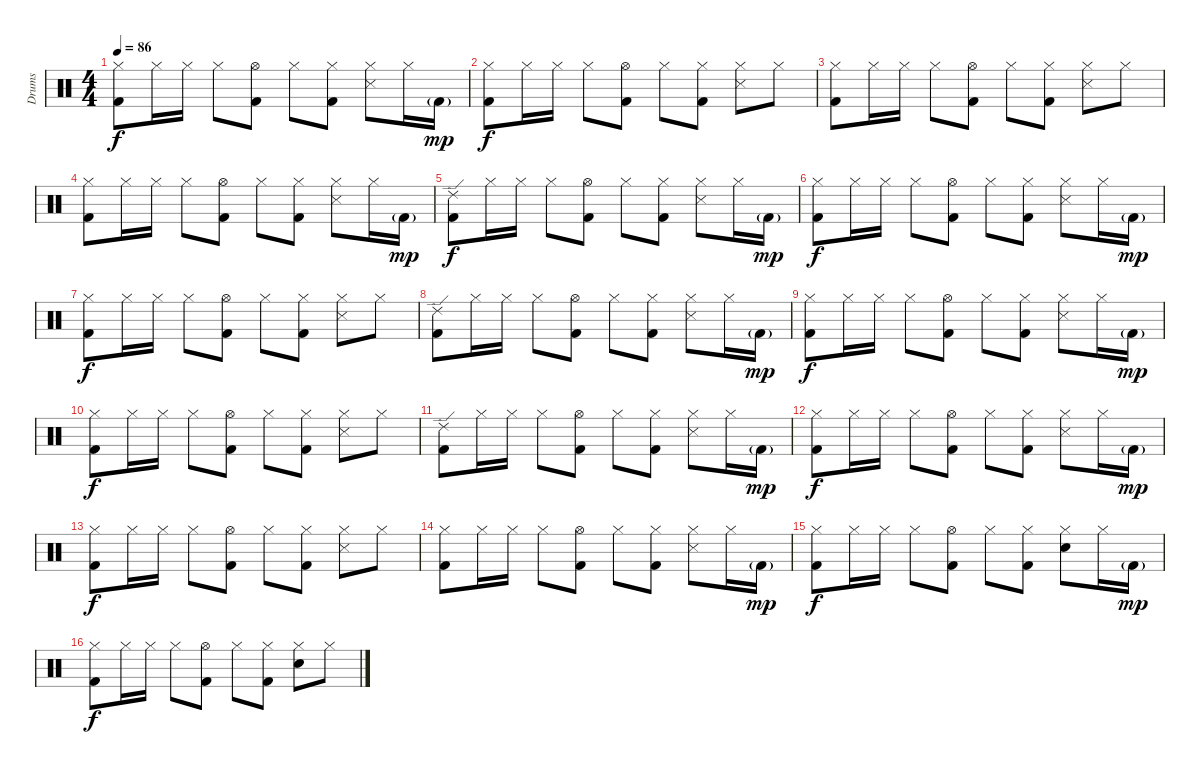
\track ("Drums" "Drums") {instrument percussion}
\staff {score}
\articulation defaults
\ts (4 4)
\tempo 86
\clef neutral
\ks c
("Hi-Hat (closed)" "Kick (hit) 2").8{dy f} "Hi-Hat (closed)".16 "Hi-Hat (closed)".16 "Hi-Hat (closed)".8 ("Hi-Hat (open)" "Kick (hit) 2").8 "Hi-Hat (closed)".8 ("Hi-Hat (closed)" "Kick (hit) 2").8 ("Hi-Hat (closed)" "Snare (side stick) 3").8 "Hi-Hat (closed)".16 "Kick (hit) 2"{g}.16{dy mp} |
("Hi-Hat (closed)" "Kick (hit) 2").8{dy f} "Hi-Hat (closed)".16 "Hi-Hat (closed)".16 "Hi-Hat (closed)".8 ("Hi-Hat (open)" "Kick (hit) 2").8 "Hi-Hat (closed)".8 ("Hi-Hat (closed)" "Kick (hit) 2").8 ("Hi-Hat (closed)" "Snare (side stick) 3").8 "Hi-Hat (closed)".8 |
("Hi-Hat (closed)" "Kick (hit) 2").8 "Hi-Hat (closed)".16 "Hi-Hat (closed)".16 "Hi-Hat (closed)".8 ("Hi-Hat (open)" "Kick (hit) 2").8 "Hi-Hat (closed)".8 ("Hi-Hat (closed)" "Kick (hit) 2").8 ("Hi-Hat (closed)" "Snare (side stick) 3").8 "Hi-Hat (closed)".8 |
("Hi-Hat (closed)" "Kick (hit) 2").8 "Hi-Hat (closed)".16 "Hi-Hat (closed)".16 "Hi-Hat (closed)".8 ("Hi-Hat (open)" "Kick (hit) 2").8 "Hi-Hat (closed)".8 ("Hi-Hat (closed)" "Kick (hit) 2").8 ("Hi-Hat (closed)" "Snare (side stick) 3").8 "Hi-Hat (closed)".16 "Kick (hit) 2"{g}.16{dy mp} |
("Ride (edge) 2" "Kick (hit) 2").8{dy f} "Hi-Hat (closed)".16 "Hi-Hat (closed)".16 "Hi-Hat (closed)".8 ("Hi-Hat (open)" "Kick (hit) 2").8 "Hi-Hat (closed)".8 ("Hi-Hat (closed)" "Kick (hit) 2").8 ("Hi-Hat (closed)" "Snare (side stick) 3").8 "Hi-Hat (closed)".16 "Kick (hit) 2"{g}.16{dy mp} |
("Hi-Hat (closed)" "Kick (hit) 2").8{dy f} "Hi-Hat (closed)".16 "Hi-Hat (closed)".16 "Hi-Hat (closed)".8 ("Hi-Hat (open)" "Kick (hit) 2").8 "Hi-Hat (closed)".8 ("Hi-Hat (closed)" "Kick (hit) 2").8 ("Hi-Hat (closed)" "Snare (side stick) 3").8 "Hi-Hat (closed)".16 "Kick (hit) 2"{g}.16{dy mp} |
("Hi-Hat (closed)" "Kick (hit) 2").8{dy f} "Hi-Hat (closed)".16 "Hi-Hat (closed)".16 "Hi-Hat (closed)".8 ("Hi-Hat (open)" "Kick (hit) 2").8 "Hi-Hat (closed)".8 ("Hi-Hat (closed)" "Kick (hit) 2").8 ("Hi-Hat (closed)" "Snare (side stick) 3").8 "Hi-Hat (closed)".8 |
("Ride (edge) 2" "Kick (hit) 2").8 "Hi-Hat (closed)".16 "Hi-Hat (closed)".16 "Hi-Hat (closed)".8 ("Hi-Hat (open)" "Kick (hit) 2").8 "Hi-Hat (closed)".8 ("Hi-Hat (closed)" "Kick (hit) 2").8 ("Hi-Hat (closed)" "Snare (side stick) 3").8 "Hi-Hat (closed)".16 "Kick (hit) 2"{g}.16{dy mp} |
("Hi-Hat (closed)" "Kick (hit) 2").8{dy f} "Hi-Hat (closed)".16 "Hi-Hat (closed)".16 "Hi-Hat (closed)".8 ("Hi-Hat (open)" "Kick (hit) 2").8 "Hi-Hat (closed)".8 ("Hi-Hat (closed)" "Kick (hit) 2").8 ("Hi-Hat (closed)" "Snare (side stick) 3").8 "Hi-Hat (closed)".16 "Kick (hit) 2"{g}.16{dy mp} |
("Hi-Hat (closed)" "Kick (hit) 2").8{dy f} "Hi-Hat (closed)".16 "Hi-Hat (closed)".16 "Hi-Hat (closed)".8 ("Hi-Hat (open)" "Kick (hit) 2").8 "Hi-Hat (closed)".8 ("Hi-Hat (closed)" "Kick (hit) 2").8 ("Hi-Hat (closed)" "Snare (side stick) 3").8 "Hi-Hat (closed)".8 |
("Ride (edge) 2" "Kick (hit) 2").8 "Hi-Hat (closed)".16 "Hi-Hat (closed)".16 "Hi-Hat (closed)".8 ("Hi-Hat (open)" "Kick (hit) 2").8 "Hi-Hat (closed)".8 ("Hi-Hat (closed)" "Kick (hit) 2").8 ("Hi-Hat (closed)" "Snare (side stick) 3").8 "Hi-Hat (closed)".16 "Kick (hit) 2"{g}.16{dy mp} |
("Hi-Hat (closed)" "Kick (hit) 2").8{dy f} "Hi-Hat (closed)".16 "Hi-Hat (closed)".16 "Hi-Hat (closed)".8 ("Hi-Hat (open)" "Kick (hit) 2").8 "Hi-Hat (closed)".8 ("Hi-Hat (closed)" "Kick (hit) 2").8 ("Hi-Hat (closed)" "Snare (side stick) 3").8 "Hi-Hat (closed)".16 "Kick (hit) 2"{g}.16{dy mp} |
("Hi-Hat (closed)" "Kick (hit) 2").8{dy f} "Hi-Hat (closed)".16 "Hi-Hat (closed)".16 "Hi-Hat (closed)".8 ("Hi-Hat (open)" "Kick (hit) 2").8 "Hi-Hat (closed)".8 ("Hi-Hat (closed)" "Kick (hit) 2").8 ("Hi-Hat (closed)" "Snare (side stick) 3").8 "Hi-Hat (closed)".8 |
("Hi-Hat (closed)" "Kick (hit) 2").8 "Hi-Hat (closed)".16 "Hi-Hat (closed)".16 "Hi-Hat (closed)".8 ("Hi-Hat (open)" "Kick (hit) 2").8 "Hi-Hat (closed)".8 ("Hi-Hat (closed)" "Kick (hit) 2").8 ("Hi-Hat (closed)" "Snare (side stick) 3").8 "Hi-Hat (closed)".16 "Kick (hit) 2"{g}.16{dy mp} |
("Hi-Hat (closed)" "Kick (hit) 2").8{dy f} "Hi-Hat (closed)".16 "Hi-Hat (closed)".16 "Hi-Hat (closed)".8 ("Hi-Hat (open)" "Kick (hit) 2").8 "Hi-Hat (closed)".8 ("Hi-Hat (closed)" "Kick (hit) 2").8 ("Hi-Hat (closed)" "Snare (hit) 2").8 "Hi-Hat (closed)".16 "Kick (hit) 2"{g}.16{dy mp} |
("Hi-Hat (closed)" "Kick (hit) 2").8{dy f} "Hi-Hat (closed)".16 "Hi-Hat (closed)".16 "Hi-Hat (closed)".8 ("Hi-Hat (open)" "Kick (hit) 2").8 "Hi-Hat (closed)".8 ("Hi-Hat (closed)" "Kick (hit) 2").8 ("Hi-Hat (closed)" "Snare (hit) 2").8 "Hi-Hat (closed)".8
